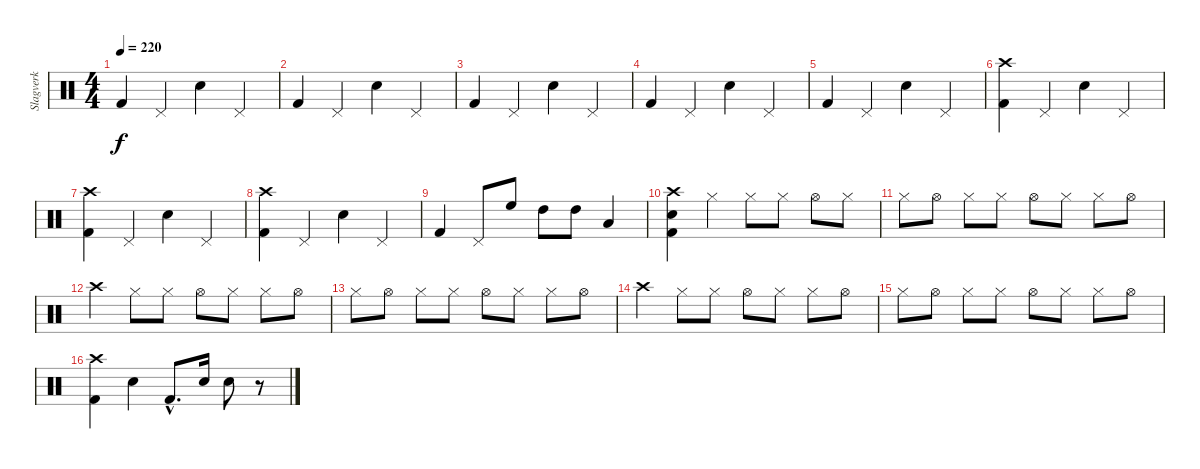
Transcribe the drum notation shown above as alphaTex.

\track ("Slagverk" "Slagverk") {instrument percussion}
\staff {score}
\articulation defaults
\ts (4 4)
\tempo 220
\clef neutral
\ks c "Kick (hit) 2".4{dy f} "Pedal Hi-Hat (hit)".4 "Snare (hit) 2".4 "Pedal Hi-Hat (hit)".4
|
"Kick (hit) 2".4 "Pedal Hi-Hat (hit)".4 "Snare (hit) 2".4 "Pedal Hi-Hat (hit)".4 |
"Kick (hit) 2".4 "Pedal Hi-Hat (hit)".4 "Snare (hit) 2".4 "Pedal Hi-Hat (hit)".4 |
"Kick (hit) 2".4 "Pedal Hi-Hat (hit)".4 "Snare (hit) 2".4 "Pedal Hi-Hat (hit)".4 |
"Kick (hit) 2".4 "Pedal Hi-Hat (hit)".4 "Snare (hit) 2".4 "Pedal Hi-Hat (hit)".4 |
("Crash high (hit)" "Kick (hit) 2").4 "Pedal Hi-Hat (hit)".4 "Snare (hit) 2".4 "Pedal Hi-Hat (hit)".4 |
("Crash high (hit)" "Kick (hit) 2").4 "Pedal Hi-Hat (hit)".4 "Snare (hit) 2".4 "Pedal Hi-Hat (hit)".4 |
("Crash high (hit)" "Kick (hit) 2").4 "Pedal Hi-Hat (hit)".4 "Snare (hit) 2".4 "Pedal Hi-Hat (hit)".4 |
"Kick (hit) 2".4 "Pedal Hi-Hat (hit)".8 "High Floor Tom (hit)".8 "High Tom (hit)".8 "High Tom (hit)".8 "Low Tom (hit)".4 |
("Crash high (hit)" "Kick (hit) 2" "Snare (hit) 2").4 "Hi-Hat (closed)".4 "Hi-Hat (closed)".8 "Hi-Hat (closed)".8 "Hi-Hat (open)".8 "Hi-Hat (closed)".8 |
"Hi-Hat (closed)".8 "Hi-Hat (open)".8 "Hi-Hat (closed)".8 "Hi-Hat (closed)".8 "Hi-Hat (open)".8 "Hi-Hat (closed)".8 "Hi-Hat (closed)".8 "Hi-Hat (open)".8 |
"Crash high (hit)".4 "Hi-Hat (closed)".8 "Hi-Hat (closed)".8 "Hi-Hat (open)".8 "Hi-Hat (closed)".8 "Hi-Hat (closed)".8 "Hi-Hat (open)".8 |
"Hi-Hat (closed)".8 "Hi-Hat (open)".8 "Hi-Hat (closed)".8 "Hi-Hat (closed)".8 "Hi-Hat (open)".8 "Hi-Hat (closed)".8 "Hi-Hat (closed)".8 "Hi-Hat (open)".8 |
"Crash high (hit)".4 "Hi-Hat (closed)".8 "Hi-Hat (closed)".8 "Hi-Hat (open)".8 "Hi-Hat (closed)".8 "Hi-Hat (closed)".8 "Hi-Hat (open)".8 |
"Hi-Hat (closed)".8 "Hi-Hat (open)".8 "Hi-Hat (closed)".8 "Hi-Hat (closed)".8 "Hi-Hat (open)".8 "Hi-Hat (closed)".8 "Hi-Hat (closed)".8 "Hi-Hat (open)".8 |
("Crash high (hit)" "Kick (hit) 2").4 "Snare (hit) 2".4 "Kick (hit) 2"{hac}.8{d} "Snare (hit) 2".16 "Snare (hit) 2".8 r.8
